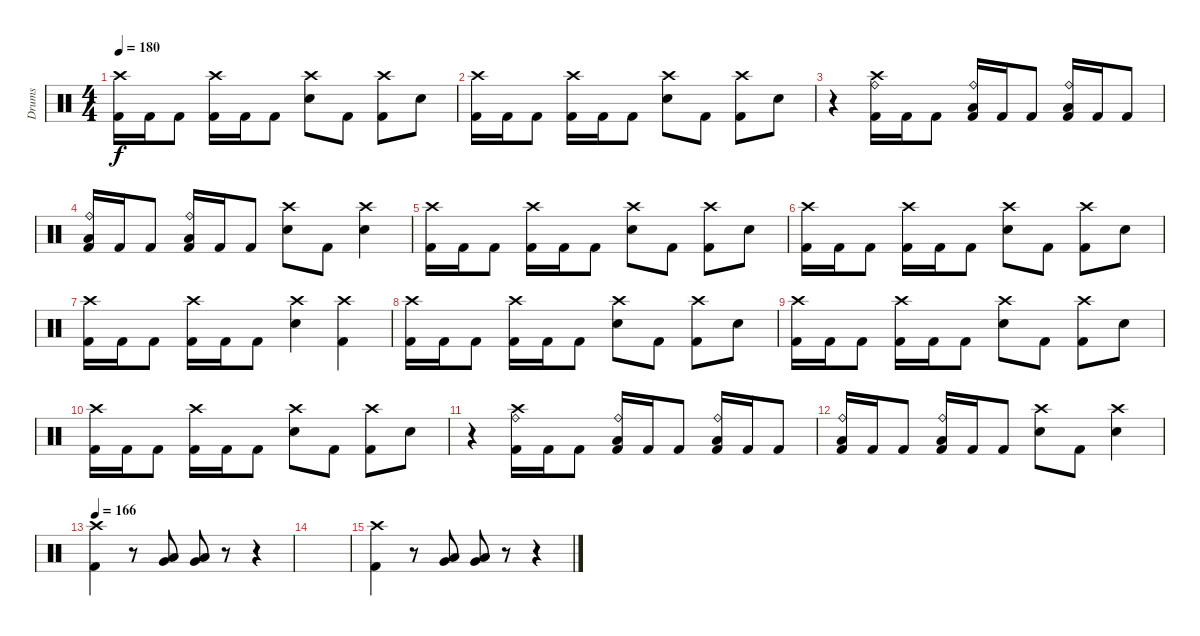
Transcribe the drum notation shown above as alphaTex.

\track ("Drums" "Drums") {instrument percussion}
\staff {score}
\articulation defaults
\ts (4 4)
\tempo 180
\clef neutral
\ks c
("Crash high (hit)" "Kick (hit) 2").16{dy f} "Kick (hit) 2".16 "Kick (hit) 2".8 ("Crash high (hit)" "Kick (hit) 2").16 "Kick (hit) 2".16 "Kick (hit) 2".8 ("Crash high (hit)" "Electric Snare (hit)").8 "Kick (hit) 2".8 ("Crash high (hit)" "Kick (hit) 2").8 "Electric Snare (hit)".8 |
("Crash high (hit)" "Kick (hit) 2").16 "Kick (hit) 2".16 "Kick (hit) 2".8 ("Crash high (hit)" "Kick (hit) 2").16 "Kick (hit) 2".16 "Kick (hit) 2".8 ("Crash high (hit)" "Electric Snare (hit)").8 "Kick (hit) 2".8 ("Crash high (hit)" "Kick (hit) 2").8 "Electric Snare (hit)".8 |
r.4 ("Crash high (hit)" "Ride (bell)" "Kick (hit) 2").16 "Kick (hit) 2".16 "Kick (hit) 2".8 ("Ride (bell)" "Low Floor Tom (hit)" "Kick (hit) 2").16 "Kick (hit) 2".16 "Kick (hit) 2".8 ("Ride (bell)" "Low Floor Tom (hit)" "Kick (hit) 2").16 "Kick (hit) 2".16 "Kick (hit) 2".8 |
("Ride (bell)" "Low Floor Tom (hit)" "Kick (hit) 2").16 "Kick (hit) 2".16 "Kick (hit) 2".8 ("Ride (bell)" "Low Floor Tom (hit)" "Kick (hit) 2").16 "Kick (hit) 2".16 "Kick (hit) 2".8 ("Crash high (hit)" "Electric Snare (hit)").8 "Kick (hit) 2".8 ("Crash high (hit)" "Electric Snare (hit)").4 |
("Crash high (hit)" "Kick (hit) 2").16 "Kick (hit) 2".16 "Kick (hit) 2".8 ("Crash high (hit)" "Kick (hit) 2").16 "Kick (hit) 2".16 "Kick (hit) 2".8 ("Crash high (hit)" "Electric Snare (hit)").8 "Kick (hit) 2".8 ("Crash high (hit)" "Kick (hit) 2").8 "Electric Snare (hit)".8 |
("Crash high (hit)" "Kick (hit) 2").16 "Kick (hit) 2".16 "Kick (hit) 2".8 ("Crash high (hit)" "Kick (hit) 2").16 "Kick (hit) 2".16 "Kick (hit) 2".8 ("Crash high (hit)" "Electric Snare (hit)").8 "Kick (hit) 2".8 ("Crash high (hit)" "Kick (hit) 2").8 "Electric Snare (hit)".8 |
("Crash high (hit)" "Kick (hit) 2").16 "Kick (hit) 2".16 "Kick (hit) 2".8 ("Crash high (hit)" "Kick (hit) 2").16 "Kick (hit) 2".16 "Kick (hit) 2".8 ("Crash high (hit)" "Electric Snare (hit)").4 ("Crash high (hit)" "Kick (hit) 2").4 |
("Crash high (hit)" "Kick (hit) 2").16 "Kick (hit) 2".16 "Kick (hit) 2".8 ("Crash high (hit)" "Kick (hit) 2").16 "Kick (hit) 2".16 "Kick (hit) 2".8 ("Crash high (hit)" "Electric Snare (hit)").8 "Kick (hit) 2".8 ("Crash high (hit)" "Kick (hit) 2").8 "Electric Snare (hit)".8 |
("Crash high (hit)" "Kick (hit) 2").16 "Kick (hit) 2".16 "Kick (hit) 2".8 ("Crash high (hit)" "Kick (hit) 2").16 "Kick (hit) 2".16 "Kick (hit) 2".8 ("Crash high (hit)" "Electric Snare (hit)").8 "Kick (hit) 2".8 ("Crash high (hit)" "Kick (hit) 2").8 "Electric Snare (hit)".8 |
("Crash high (hit)" "Kick (hit) 2").16 "Kick (hit) 2".16 "Kick (hit) 2".8 ("Crash high (hit)" "Kick (hit) 2").16 "Kick (hit) 2".16 "Kick (hit) 2".8 ("Crash high (hit)" "Electric Snare (hit)").8 "Kick (hit) 2".8 ("Crash high (hit)" "Kick (hit) 2").8 "Electric Snare (hit)".8 |
r.4 ("Crash high (hit)" "Ride (bell)" "Kick (hit) 2").16 "Kick (hit) 2".16 "Kick (hit) 2".8 ("Ride (bell)" "Low Floor Tom (hit)" "Kick (hit) 2").16 "Kick (hit) 2".16 "Kick (hit) 2".8 ("Ride (bell)" "Low Floor Tom (hit)" "Kick (hit) 2").16 "Kick (hit) 2".16 "Kick (hit) 2".8 |
("Ride (bell)" "Low Floor Tom (hit)" "Kick (hit) 2").16 "Kick (hit) 2".16 "Kick (hit) 2".8 ("Ride (bell)" "Low Floor Tom (hit)" "Kick (hit) 2").16 "Kick (hit) 2".16 "Kick (hit) 2".8 ("Crash high (hit)" "Electric Snare (hit)").8 "Kick (hit) 2".8 ("Crash high (hit)" "Electric Snare (hit)").4 |
\tempo 166
("Crash high (hit)" "Kick (hit) 2").4 r.8 ("Low Tom (hit)" "Very Low Tom (hit)").8 ("Low Tom (hit)" "Very Low Tom (hit)").8 r.8 r.4 |
|
("Crash high (hit)" "Kick (hit) 2").4 r.8 ("Low Tom (hit)" "Very Low Tom (hit)").8 ("Low Tom (hit)" "Very Low Tom (hit)").8 r.8 r.4
